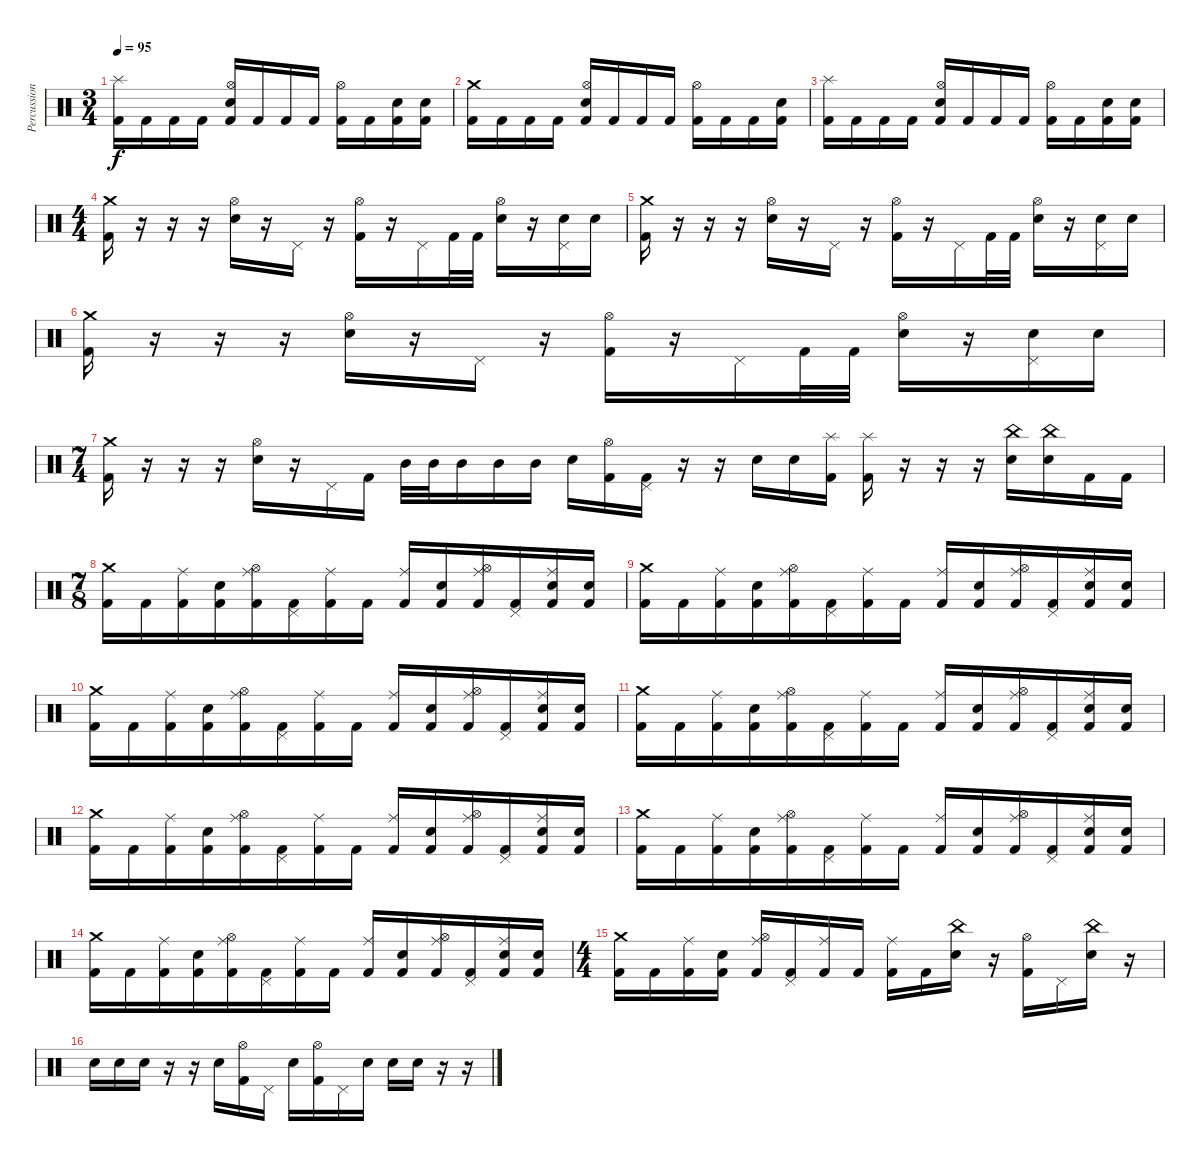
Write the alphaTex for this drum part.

\track ("Percussion" "Percussion") {instrument percussion}
\staff {score}
\articulation defaults
\ts (3 4)
\tempo 95
\clef neutral
\ks c
("Splash (hit)" "Kick (hit) 2").16{dy f} "Kick (hit) 2".16 "Kick (hit) 2".16 "Kick (hit) 2".16 ("Hi-Hat (open)" "Electric Snare (hit)" "Kick (hit) 2").16 "Kick (hit) 2".16 "Kick (hit) 2".16 "Kick (hit) 2".16 ("Hi-Hat (open)" "Kick (hit) 2").16 "Kick (hit) 2".16 ("Electric Snare (hit)" "Kick (hit) 2").16 ("Electric Snare (hit)" "Kick (hit) 2").16 |
("Crash medium (hit)" "Kick (hit) 2").16 "Kick (hit) 2".16 "Kick (hit) 2".16 "Kick (hit) 2".16 ("Hi-Hat (open)" "Electric Snare (hit)" "Kick (hit) 2").16 "Kick (hit) 2".16 "Kick (hit) 2".16 "Kick (hit) 2".16 ("Hi-Hat (open)" "Kick (hit) 2").16 "Kick (hit) 2".16 "Kick (hit) 2".16 ("Electric Snare (hit)" "Kick (hit) 2").16 |
("Splash (hit)" "Kick (hit) 2").16 "Kick (hit) 2".16 "Kick (hit) 2".16 "Kick (hit) 2".16 ("Hi-Hat (open)" "Electric Snare (hit)" "Kick (hit) 2").16 "Kick (hit) 2".16 "Kick (hit) 2".16 "Kick (hit) 2".16 ("Hi-Hat (open)" "Kick (hit) 2").16 "Kick (hit) 2".16 ("Electric Snare (hit)" "Kick (hit) 2").16 ("Electric Snare (hit)" "Kick (hit) 2").16 |
\ts (4 4)
("Crash medium (hit)" "Kick (hit) 2").16 r.16 r.16 r.16 ("Hi-Hat (open)" "Electric Snare (hit)").16 r.16 "Pedal Hi-Hat (hit)".16 r.16 ("Hi-Hat (open)" "Kick (hit) 2").16 r.16 "Pedal Hi-Hat (hit)".16 "Kick (hit) 2".32 "Kick (hit) 2".32 ("Hi-Hat (open)" "Electric Snare (hit)").16 r.16 ("Pedal Hi-Hat (hit)" "Electric Snare (hit)").16 "Electric Snare (hit)".16 |
("Crash medium (hit)" "Kick (hit) 2").16 r.16 r.16 r.16 ("Hi-Hat (open)" "Electric Snare (hit)").16 r.16 "Pedal Hi-Hat (hit)".16 r.16 ("Hi-Hat (open)" "Kick (hit) 2").16 r.16 "Pedal Hi-Hat (hit)".16 "Kick (hit) 2".32 "Kick (hit) 2".32 ("Hi-Hat (open)" "Electric Snare (hit)").16 r.16 ("Pedal Hi-Hat (hit)" "Electric Snare (hit)").16 "Electric Snare (hit)".16 |
("Crash medium (hit)" "Kick (hit) 2").16 r.16 r.16 r.16 ("Hi-Hat (open)" "Electric Snare (hit)").16 r.16 "Pedal Hi-Hat (hit)".16 r.16 ("Hi-Hat (open)" "Kick (hit) 2").16 r.16 "Pedal Hi-Hat (hit)".16 "Kick (hit) 2".32 "Kick (hit) 2".32 ("Hi-Hat (open)" "Electric Snare (hit)").16 r.16 ("Pedal Hi-Hat (hit)" "Electric Snare (hit)").16 "Electric Snare (hit)".16 |
\ts (7 4)
("Crash medium (hit)" "Kick (hit) 2").16 r.16 r.16 r.16 ("Hi-Hat (open)" "Electric Snare (hit)").16 r.16 "Pedal Hi-Hat (hit)".16 "Kick (hit) 2".16 "Mid Tom (hit)".32 "Mid Tom (hit)".32 "Mid Tom (hit)".16 "Mid Tom (hit)".16 "Mid Tom (hit)".16 "Electric Snare (hit)".16 ("Hi-Hat (open)" "Kick (hit) 2").16 ("Pedal Hi-Hat (hit)" "Kick (hit) 2").16 r.16 r.16 "Electric Snare (hit)".16 "Electric Snare (hit)".16 ("Splash (hit)" "Kick (hit) 2").16 ("Splash (hit)" "Kick (hit) 2").16 r.16 r.16 r.16 ("China (hit)" "Electric Snare (hit)").16 ("China (hit)" "Electric Snare (hit)").16 "Kick (hit) 2".16 "Kick (hit) 2".16 |
\ts (7 8)
("Crash medium (hit)" "Kick (hit) 2").16 "Kick (hit) 2".16 ("Ride (middle)" "Kick (hit) 2").16 ("Electric Snare (hit)" "Kick (hit) 2").16 ("Ride (middle)" "Hi-Hat (open)" "Kick (hit) 2").16 ("Pedal Hi-Hat (hit)" "Kick (hit) 2").16 ("Ride (middle)" "Kick (hit) 2").16 "Kick (hit) 2".16 ("Ride (middle)" "Kick (hit) 2").16 ("Electric Snare (hit)" "Kick (hit) 2").16 ("Ride (middle)" "Hi-Hat (open)" "Kick (hit) 2").16 ("Pedal Hi-Hat (hit)" "Kick (hit) 2").16 ("Ride (middle)" "Electric Snare (hit)" "Kick (hit) 2").16 ("Electric Snare (hit)" "Kick (hit) 2").16 |
("Crash medium (hit)" "Kick (hit) 2").16 "Kick (hit) 2".16 ("Ride (middle)" "Kick (hit) 2").16 ("Electric Snare (hit)" "Kick (hit) 2").16 ("Ride (middle)" "Hi-Hat (open)" "Kick (hit) 2").16 ("Pedal Hi-Hat (hit)" "Kick (hit) 2").16 ("Ride (middle)" "Kick (hit) 2").16 "Kick (hit) 2".16 ("Ride (middle)" "Kick (hit) 2").16 ("Electric Snare (hit)" "Kick (hit) 2").16 ("Ride (middle)" "Hi-Hat (open)" "Kick (hit) 2").16 ("Pedal Hi-Hat (hit)" "Kick (hit) 2").16 ("Ride (middle)" "Electric Snare (hit)" "Kick (hit) 2").16 ("Electric Snare (hit)" "Kick (hit) 2").16 |
("Crash medium (hit)" "Kick (hit) 2").16 "Kick (hit) 2".16 ("Ride (middle)" "Kick (hit) 2").16 ("Electric Snare (hit)" "Kick (hit) 2").16 ("Ride (middle)" "Hi-Hat (open)" "Kick (hit) 2").16 ("Pedal Hi-Hat (hit)" "Kick (hit) 2").16 ("Ride (middle)" "Kick (hit) 2").16 "Kick (hit) 2".16 ("Ride (middle)" "Kick (hit) 2").16 ("Electric Snare (hit)" "Kick (hit) 2").16 ("Ride (middle)" "Hi-Hat (open)" "Kick (hit) 2").16 ("Pedal Hi-Hat (hit)" "Kick (hit) 2").16 ("Ride (middle)" "Electric Snare (hit)" "Kick (hit) 2").16 ("Electric Snare (hit)" "Kick (hit) 2").16 |
("Crash medium (hit)" "Kick (hit) 2").16 "Kick (hit) 2".16 ("Ride (middle)" "Kick (hit) 2").16 ("Electric Snare (hit)" "Kick (hit) 2").16 ("Ride (middle)" "Hi-Hat (open)" "Kick (hit) 2").16 ("Pedal Hi-Hat (hit)" "Kick (hit) 2").16 ("Ride (middle)" "Kick (hit) 2").16 "Kick (hit) 2".16 ("Ride (middle)" "Kick (hit) 2").16 ("Electric Snare (hit)" "Kick (hit) 2").16 ("Ride (middle)" "Hi-Hat (open)" "Kick (hit) 2").16 ("Pedal Hi-Hat (hit)" "Kick (hit) 2").16 ("Ride (middle)" "Electric Snare (hit)" "Kick (hit) 2").16 ("Electric Snare (hit)" "Kick (hit) 2").16 |
("Crash medium (hit)" "Kick (hit) 2").16 "Kick (hit) 2".16 ("Ride (middle)" "Kick (hit) 2").16 ("Electric Snare (hit)" "Kick (hit) 2").16 ("Ride (middle)" "Hi-Hat (open)" "Kick (hit) 2").16 ("Pedal Hi-Hat (hit)" "Kick (hit) 2").16 ("Ride (middle)" "Kick (hit) 2").16 "Kick (hit) 2".16 ("Ride (middle)" "Kick (hit) 2").16 ("Electric Snare (hit)" "Kick (hit) 2").16 ("Ride (middle)" "Hi-Hat (open)" "Kick (hit) 2").16 ("Pedal Hi-Hat (hit)" "Kick (hit) 2").16 ("Ride (middle)" "Electric Snare (hit)" "Kick (hit) 2").16 ("Electric Snare (hit)" "Kick (hit) 2").16 |
("Crash medium (hit)" "Kick (hit) 2").16 "Kick (hit) 2".16 ("Ride (middle)" "Kick (hit) 2").16 ("Electric Snare (hit)" "Kick (hit) 2").16 ("Ride (middle)" "Hi-Hat (open)" "Kick (hit) 2").16 ("Pedal Hi-Hat (hit)" "Kick (hit) 2").16 ("Ride (middle)" "Kick (hit) 2").16 "Kick (hit) 2".16 ("Ride (middle)" "Kick (hit) 2").16 ("Electric Snare (hit)" "Kick (hit) 2").16 ("Ride (middle)" "Hi-Hat (open)" "Kick (hit) 2").16 ("Pedal Hi-Hat (hit)" "Kick (hit) 2").16 ("Ride (middle)" "Electric Snare (hit)" "Kick (hit) 2").16 ("Electric Snare (hit)" "Kick (hit) 2").16 |
("Crash medium (hit)" "Kick (hit) 2").16 "Kick (hit) 2".16 ("Ride (middle)" "Kick (hit) 2").16 ("Electric Snare (hit)" "Kick (hit) 2").16 ("Ride (middle)" "Hi-Hat (open)" "Kick (hit) 2").16 ("Pedal Hi-Hat (hit)" "Kick (hit) 2").16 ("Ride (middle)" "Kick (hit) 2").16 "Kick (hit) 2".16 ("Ride (middle)" "Kick (hit) 2").16 ("Electric Snare (hit)" "Kick (hit) 2").16 ("Ride (middle)" "Hi-Hat (open)" "Kick (hit) 2").16 ("Pedal Hi-Hat (hit)" "Kick (hit) 2").16 ("Ride (middle)" "Electric Snare (hit)" "Kick (hit) 2").16 ("Electric Snare (hit)" "Kick (hit) 2").16 |
\ts (4 4)
("Crash medium (hit)" "Kick (hit) 2").16 "Kick (hit) 2".16 ("Ride (middle)" "Kick (hit) 2").16 ("Electric Snare (hit)" "Kick (hit) 2").16 ("Ride (middle)" "Hi-Hat (open)" "Kick (hit) 2").16 ("Pedal Hi-Hat (hit)" "Kick (hit) 2").16 ("Ride (middle)" "Kick (hit) 2").16 "Kick (hit) 2".16 ("Ride (middle)" "Kick (hit) 2").16 "Kick (hit) 2".16 ("China (hit)" "Electric Snare (hit)").16 r.16 ("Hi-Hat (open)" "Kick (hit) 2").16 "Pedal Hi-Hat (hit)".16 ("China (hit)" "Electric Snare (hit)").16 r.16 |
"Electric Snare (hit)".16 "Electric Snare (hit)".16 "Electric Snare (hit)".16 r.16 r.16 "Electric Snare (hit)".16 ("Hi-Hat (open)" "Kick (hit) 2").16 "Pedal Hi-Hat (hit)".16 "Electric Snare (hit)".16 ("Hi-Hat (open)" "Kick (hit) 2").16 "Pedal Hi-Hat (hit)".16 "Electric Snare (hit)".16 "Electric Snare (hit)".16 "Electric Snare (hit)".16 r.16 r.16
